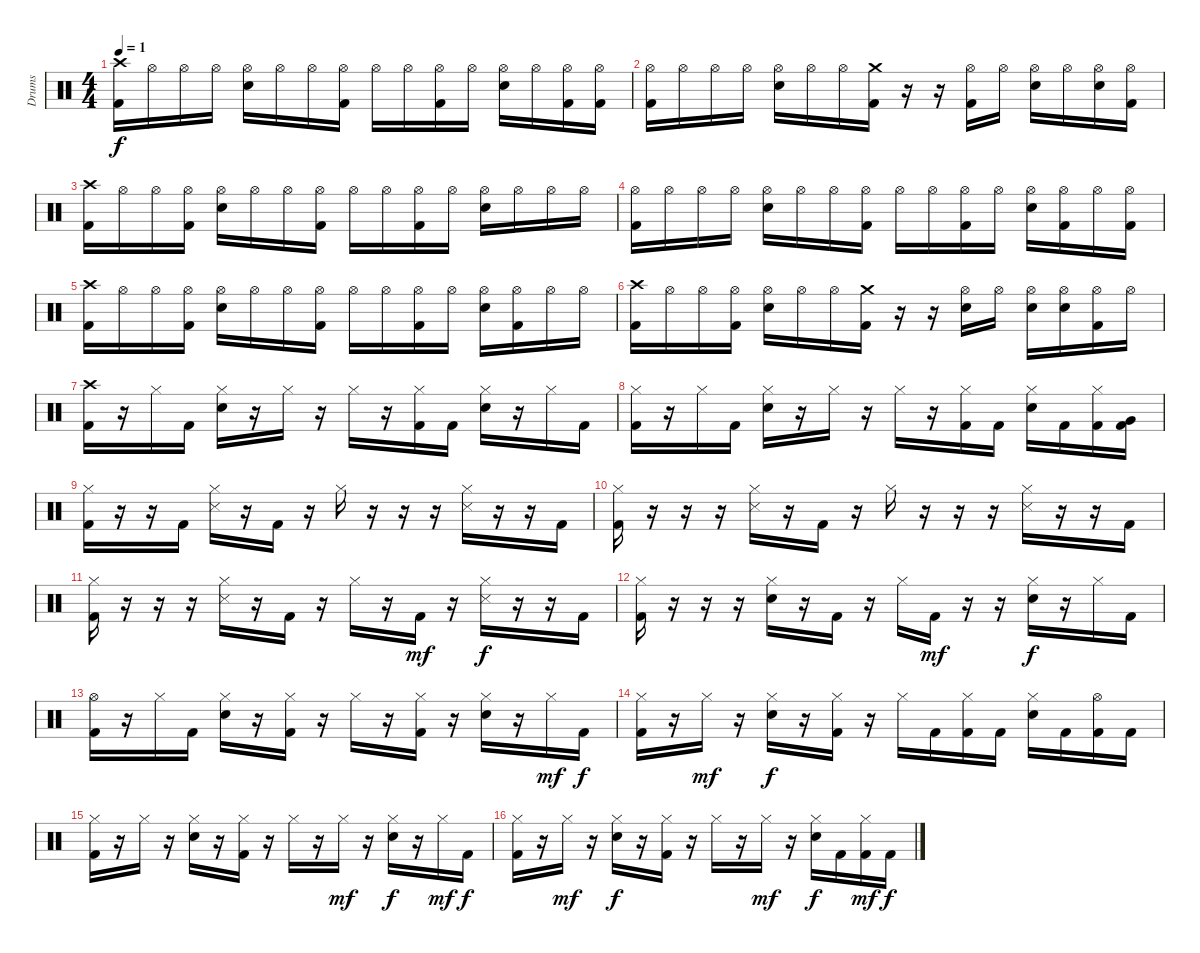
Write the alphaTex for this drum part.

\track ("Drums" "Drums") {instrument percussion}
\staff {score}
\articulation defaults
\ts (4 4)
\tempo 1
\clef neutral
\ks c
("Crash high (hit)" "Kick (hit) 2").16{dy f} "Hi-Hat (open)".16 "Hi-Hat (open)".16 "Hi-Hat (open)".16 ("Hi-Hat (open)" "Snare (hit) 2").16 "Hi-Hat (open)".16 "Hi-Hat (open)".16 ("Kick (hit) 2" "Hi-Hat (open)").16 "Hi-Hat (open)".16 "Hi-Hat (open)".16 ("Hi-Hat (open)" "Kick (hit) 2").16 "Hi-Hat (open)".16 ("Hi-Hat (open)" "Snare (hit) 2").16 "Hi-Hat (open)".16 ("Hi-Hat (open)" "Kick (hit) 2").16 ("Kick (hit) 2" "Hi-Hat (open)").16 |
("Hi-Hat (open)" "Kick (hit) 2").16 "Hi-Hat (open)".16 "Hi-Hat (open)".16 "Hi-Hat (open)".16 ("Hi-Hat (open)" "Snare (hit) 2").16 "Hi-Hat (open)".16 "Hi-Hat (open)".16 ("Kick (hit) 2" "Crash medium (hit)").16 r.16 r.16 ("Hi-Hat (open)" "Kick (hit) 2").16 "Hi-Hat (open)".16 ("Hi-Hat (open)" "Snare (hit) 2").16 "Hi-Hat (open)".16 ("Hi-Hat (open)" "Snare (hit) 2").16 ("Kick (hit) 2" "Hi-Hat (open)").16 |
("Crash high (hit)" "Kick (hit) 2").16 "Hi-Hat (open)".16 "Hi-Hat (open)".16 ("Hi-Hat (open)" "Kick (hit) 2").16 ("Hi-Hat (open)" "Snare (hit) 2").16 "Hi-Hat (open)".16 "Hi-Hat (open)".16 ("Kick (hit) 2" "Hi-Hat (open)").16 "Hi-Hat (open)".16 "Hi-Hat (open)".16 ("Hi-Hat (open)" "Kick (hit) 2").16 "Hi-Hat (open)".16 ("Hi-Hat (open)" "Snare (hit) 2").16 "Hi-Hat (open)".16 "Hi-Hat (open)".16 "Hi-Hat (open)".16 |
("Hi-Hat (open)" "Kick (hit) 2").16 "Hi-Hat (open)".16 "Hi-Hat (open)".16 "Hi-Hat (open)".16 ("Hi-Hat (open)" "Snare (hit) 2").16 "Hi-Hat (open)".16 "Hi-Hat (open)".16 ("Kick (hit) 2" "Hi-Hat (open)").16 "Hi-Hat (open)".16 "Hi-Hat (open)".16 ("Hi-Hat (open)" "Kick (hit) 2").16 "Hi-Hat (open)".16 ("Hi-Hat (open)" "Snare (hit) 2").16 ("Hi-Hat (open)" "Kick (hit) 2").16 "Hi-Hat (open)".16 ("Kick (hit) 2" "Hi-Hat (open)").16 |
("Crash high (hit)" "Kick (hit) 2").16 "Hi-Hat (open)".16 "Hi-Hat (open)".16 ("Hi-Hat (open)" "Kick (hit) 2").16 ("Hi-Hat (open)" "Snare (hit) 2").16 "Hi-Hat (open)".16 "Hi-Hat (open)".16 ("Kick (hit) 2" "Hi-Hat (open)").16 "Hi-Hat (open)".16 "Hi-Hat (open)".16 ("Hi-Hat (open)" "Kick (hit) 2").16 "Hi-Hat (open)".16 ("Hi-Hat (open)" "Snare (hit) 2").16 ("Hi-Hat (open)" "Kick (hit) 2").16 "Hi-Hat (open)".16 "Hi-Hat (open)".16 |
("Kick (hit) 2" "Crash high (hit)").16 "Hi-Hat (open)".16 "Hi-Hat (open)".16 ("Hi-Hat (open)" "Kick (hit) 2").16 ("Hi-Hat (open)" "Snare (hit) 2").16 "Hi-Hat (open)".16 "Hi-Hat (open)".16 ("Kick (hit) 2" "Crash medium (hit)").16 r.16 r.16 ("Hi-Hat (open)" "Snare (hit) 2").16 "Hi-Hat (open)".16 ("Hi-Hat (open)" "Snare (hit) 2").16 ("Hi-Hat (open)" "Snare (hit) 2").16 ("Hi-Hat (open)" "Kick (hit) 2").16 "Hi-Hat (open)".16 |
("Kick (hit) 2" "Crash high (hit)").16 r.16 "Hi-Hat (closed)".16 "Kick (hit) 2".16 ("Hi-Hat (closed)" "Snare (hit) 2").16 r.16 "Hi-Hat (closed)".16 r.16 "Hi-Hat (closed)".16 r.16 ("Hi-Hat (closed)" "Kick (hit) 2").16 "Kick (hit) 2".16 ("Hi-Hat (closed)" "Snare (hit) 2").16 r.16 "Hi-Hat (closed)".16 "Kick (hit) 2".16 |
("Hi-Hat (closed)" "Kick (hit) 2").16 r.16 "Hi-Hat (closed)".16 "Kick (hit) 2".16 ("Hi-Hat (closed)" "Snare (hit) 2").16 r.16 "Hi-Hat (closed)".16 r.16 "Hi-Hat (closed)".16 r.16 ("Hi-Hat (closed)" "Kick (hit) 2").16 "Kick (hit) 2".16 ("Hi-Hat (closed)" "Snare (hit) 2").16 "Kick (hit) 2".16 ("Hi-Hat (closed)" "Kick (hit) 2").16 ("Kick (hit) 2" "Very Low Tom (hit)").16 |
("Hi-Hat (closed)" "Kick (hit) 2").16 r.16 r.16 "Kick (hit) 2".16 ("Hi-Hat (closed)" "Snare (side stick) 3").16 r.16 "Kick (hit) 2".16 r.16 "Hi-Hat (closed)".16 r.16 r.16 r.16 ("Hi-Hat (closed)" "Snare (side stick) 3").16 r.16 r.16 "Kick (hit) 2".16 |
("Hi-Hat (closed)" "Kick (hit) 2").16 r.16 r.16 r.16 ("Hi-Hat (closed)" "Snare (side stick) 3").16 r.16 "Kick (hit) 2".16 r.16 "Hi-Hat (closed)".16 r.16 r.16 r.16 ("Hi-Hat (closed)" "Snare (side stick) 3").16 r.16 r.16 "Kick (hit) 2".16 |
("Hi-Hat (closed)" "Kick (hit) 2").16 r.16 r.16 r.16 ("Hi-Hat (closed)" "Snare (side stick) 3").16 r.16 "Kick (hit) 2".16 r.16 "Hi-Hat (closed)".16 r.16 "Kick (hit) 2".16{dy mf} r.16 ("Hi-Hat (closed)" "Snare (side stick) 3").16{dy f} r.16 r.16 "Kick (hit) 2".16 |
("Hi-Hat (closed)" "Kick (hit) 2").16 r.16 r.16 r.16 ("Hi-Hat (closed)" "Snare (hit) 2").16 r.16 "Kick (hit) 2".16 r.16 "Hi-Hat (closed)".16 "Kick (hit) 2".16{dy mf} r.16 r.16 ("Hi-Hat (closed)" "Snare (hit) 2").16{dy f} r.16 "Hi-Hat (closed)".16 "Kick (hit) 2".16 |
("Kick (hit) 2" "Hi-Hat (open)").16 r.16 "Hi-Hat (closed)".16 "Kick (hit) 2".16 ("Hi-Hat (closed)" "Snare (hit) 2").16 r.16 ("Kick (hit) 2" "Hi-Hat (closed)").16 r.16 "Hi-Hat (closed)".16 r.16 ("Kick (hit) 2" "Hi-Hat (closed)").16 r.16 ("Hi-Hat (closed)" "Snare (hit) 2").16 r.16 "Hi-Hat (closed)".16{dy mf} "Kick (hit) 2".16{dy f} |
("Hi-Hat (closed)" "Kick (hit) 2").16 r.16 "Hi-Hat (closed)".16{dy mf} r.16 ("Hi-Hat (closed)" "Snare (hit) 2").16{dy f} r.16 ("Kick (hit) 2" "Hi-Hat (closed)").16 r.16 "Hi-Hat (closed)".16 "Kick (hit) 2".16 ("Kick (hit) 2" "Hi-Hat (closed)").16 "Kick (hit) 2".16 ("Hi-Hat (closed)" "Snare (hit) 2").16 "Kick (hit) 2".16 ("Kick (hit) 2" "Hi-Hat (open)").16 "Kick (hit) 2".16 |
("Hi-Hat (closed)" "Kick (hit) 2").16 r.16 "Hi-Hat (closed)".16 r.16 ("Hi-Hat (closed)" "Snare (hit) 2").16 r.16 ("Kick (hit) 2" "Hi-Hat (closed)").16 r.16 "Hi-Hat (closed)".16 r.16 "Hi-Hat (closed)".16{dy mf} r.16 ("Hi-Hat (closed)" "Snare (hit) 2").16{dy f} r.16 "Hi-Hat (closed)".16{dy mf} "Kick (hit) 2".16{dy f} |
("Hi-Hat (closed)" "Kick (hit) 2").16 r.16 "Hi-Hat (closed)".16{dy mf} r.16 ("Hi-Hat (closed)" "Snare (hit) 2").16{dy f} r.16 ("Kick (hit) 2" "Hi-Hat (closed)").16 r.16 "Hi-Hat (closed)".16 r.16 "Hi-Hat (closed)".16{dy mf} r.16 ("Hi-Hat (closed)" "Snare (hit) 2").16{dy f} "Kick (hit) 2".16 ("Hi-Hat (closed)" "Kick (hit) 2").16{dy mf} "Kick (hit) 2".16{dy f}
